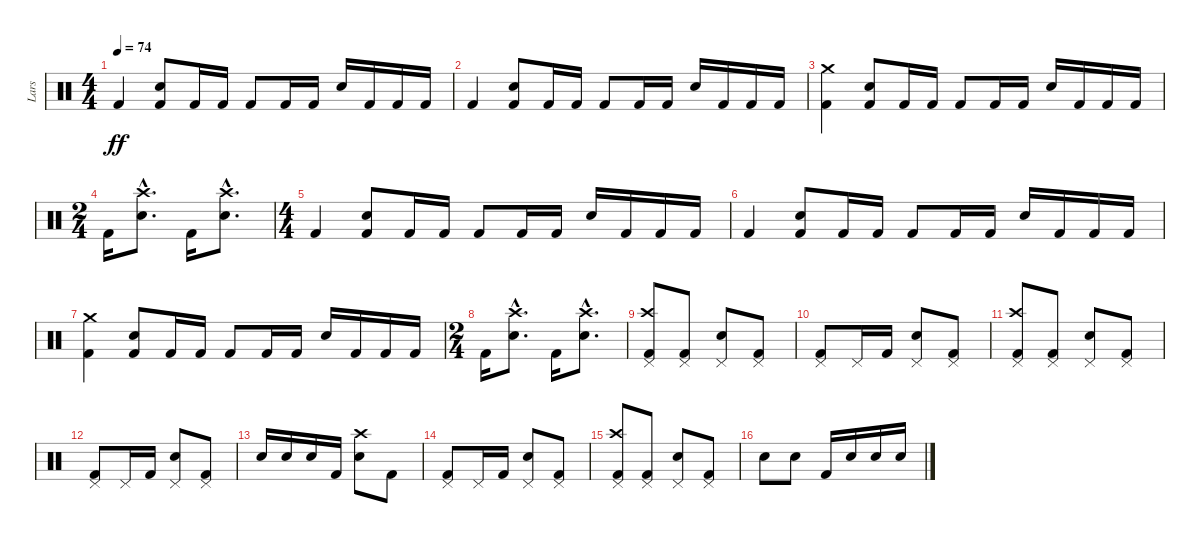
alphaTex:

\track ("Lars" "Lars") {instrument percussion}
\staff {score}
\articulation defaults
\ts (4 4)
\tempo 74
\clef neutral
\ks c "Kick (hit) 2".4{dy ff}
("Snare (hit) 2" "Kick (hit) 2").8 "Kick (hit) 2".16 "Kick (hit) 2".16 "Kick (hit) 2".8 "Kick (hit) 2".16 "Kick (hit) 2".16 "Snare (hit) 2".16 "Kick (hit) 2".16 "Kick (hit) 2".16 "Kick (hit) 2".16 |
"Kick (hit) 2".4 ("Snare (hit) 2" "Kick (hit) 2").8 "Kick (hit) 2".16 "Kick (hit) 2".16 "Kick (hit) 2".8 "Kick (hit) 2".16 "Kick (hit) 2".16 "Snare (hit) 2".16 "Kick (hit) 2".16 "Kick (hit) 2".16 "Kick (hit) 2".16 |
("Crash medium (hit)" "Kick (hit) 2").4 ("Snare (hit) 2" "Kick (hit) 2").8 "Kick (hit) 2".16 "Kick (hit) 2".16 "Kick (hit) 2".8 "Kick (hit) 2".16 "Kick (hit) 2".16 "Snare (hit) 2".16 "Kick (hit) 2".16 "Kick (hit) 2".16 "Kick (hit) 2".16 |
\ts (2 4)
"Kick (hit) 2".16 ("Crash high (hit)"{hac} "Snare (hit) 2"{hac}).8{d} "Kick (hit) 2".16 ("Crash high (hit)"{hac} "Snare (hit) 2"{hac}).8{d} |
\ts (4 4)
"Kick (hit) 2".4 ("Snare (hit) 2" "Kick (hit) 2").8 "Kick (hit) 2".16 "Kick (hit) 2".16 "Kick (hit) 2".8 "Kick (hit) 2".16 "Kick (hit) 2".16 "Snare (hit) 2".16 "Kick (hit) 2".16 "Kick (hit) 2".16 "Kick (hit) 2".16 |
"Kick (hit) 2".4 ("Snare (hit) 2" "Kick (hit) 2").8 "Kick (hit) 2".16 "Kick (hit) 2".16 "Kick (hit) 2".8 "Kick (hit) 2".16 "Kick (hit) 2".16 "Snare (hit) 2".16 "Kick (hit) 2".16 "Kick (hit) 2".16 "Kick (hit) 2".16 |
("Crash medium (hit)" "Kick (hit) 2").4 ("Snare (hit) 2" "Kick (hit) 2").8 "Kick (hit) 2".16 "Kick (hit) 2".16 "Kick (hit) 2".8 "Kick (hit) 2".16 "Kick (hit) 2".16 "Snare (hit) 2".16 "Kick (hit) 2".16 "Kick (hit) 2".16 "Kick (hit) 2".16 |
\ts (2 4)
"Kick (hit) 2".16 ("Crash high (hit)"{hac} "Snare (hit) 2"{hac}).8{d} "Kick (hit) 2".16 ("Crash high (hit)"{hac} "Snare (hit) 2"{hac}).8{d} |
("Pedal Hi-Hat (hit)" "Crash high (hit)" "Kick (hit) 2").8 ("Pedal Hi-Hat (hit)" "Kick (hit) 2").8 ("Pedal Hi-Hat (hit)" "Snare (hit) 2").8 ("Pedal Hi-Hat (hit)" "Kick (hit) 2").8 |
("Pedal Hi-Hat (hit)" "Kick (hit) 2").8 "Pedal Hi-Hat (hit)".16 "Kick (hit) 2".16 ("Pedal Hi-Hat (hit)" "Snare (hit) 2").8 ("Pedal Hi-Hat (hit)" "Kick (hit) 2").8 |
("Pedal Hi-Hat (hit)" "Crash high (hit)" "Kick (hit) 2").8 ("Pedal Hi-Hat (hit)" "Kick (hit) 2").8 ("Pedal Hi-Hat (hit)" "Snare (hit) 2").8 ("Pedal Hi-Hat (hit)" "Kick (hit) 2").8 |
("Pedal Hi-Hat (hit)" "Kick (hit) 2").8 "Pedal Hi-Hat (hit)".16 "Kick (hit) 2".16 ("Pedal Hi-Hat (hit)" "Snare (hit) 2").8 ("Pedal Hi-Hat (hit)" "Kick (hit) 2").8 |
"Snare (hit) 2".16 "Snare (hit) 2".16 "Snare (hit) 2".16 "Kick (hit) 2".16 ("Crash high (hit)" "Snare (hit) 2").8 "Kick (hit) 2".8 |
("Pedal Hi-Hat (hit)" "Kick (hit) 2").8 "Pedal Hi-Hat (hit)".16 "Kick (hit) 2".16 ("Pedal Hi-Hat (hit)" "Snare (hit) 2").8 ("Pedal Hi-Hat (hit)" "Kick (hit) 2").8 |
("Pedal Hi-Hat (hit)" "Crash high (hit)" "Kick (hit) 2").8 ("Pedal Hi-Hat (hit)" "Kick (hit) 2").8 ("Pedal Hi-Hat (hit)" "Snare (hit) 2").8 ("Pedal Hi-Hat (hit)" "Kick (hit) 2").8 |
"Snare (hit) 2".8 "Snare (hit) 2".8 "Kick (hit) 2".16 "Snare (hit) 2".16 "Snare (hit) 2".16 "Snare (hit) 2".16
